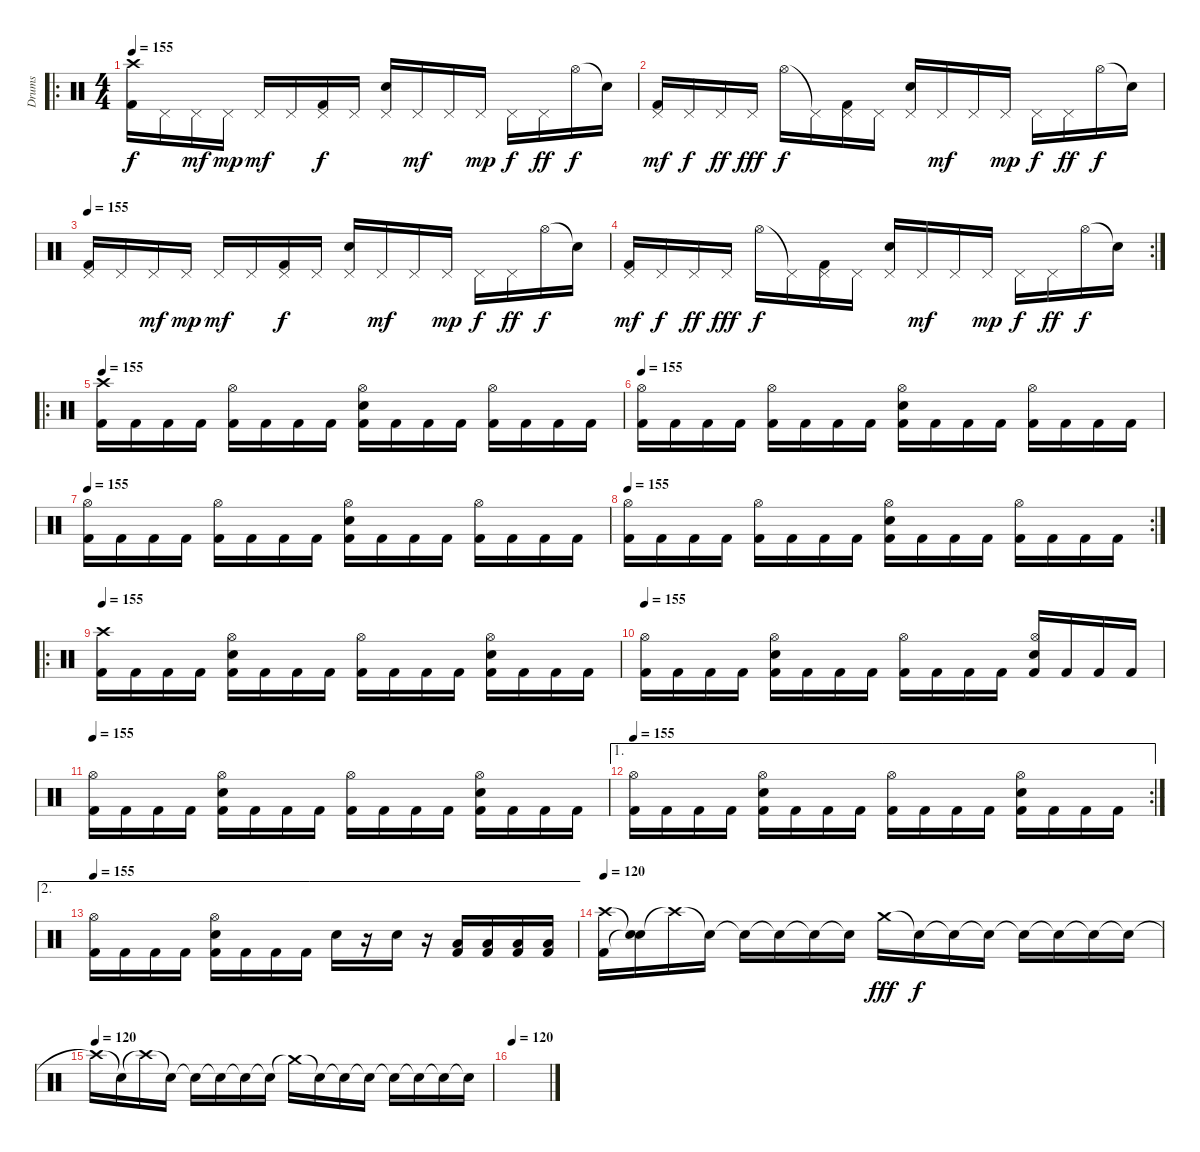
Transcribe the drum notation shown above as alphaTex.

\track ("Drums" "Drums") {instrument percussion}
\staff {score}
\articulation defaults
\ro
\ts (4 4)
\tempo 155
\clef neutral
\ks c
("Crash high (hit)" "Kick (hit) 2").16{dy f} "Pedal Hi-Hat (hit)".16 "Pedal Hi-Hat (hit)".16{dy mf} "Pedal Hi-Hat (hit)".16{dy mp} "Pedal Hi-Hat (hit)".16{dy mf} "Pedal Hi-Hat (hit)".16 ("Pedal Hi-Hat (hit)" "Kick (hit) 2").16{dy f} "Pedal Hi-Hat (hit)".16 ("Pedal Hi-Hat (hit)" "Electric Snare (hit)").16 "Pedal Hi-Hat (hit)".16{dy mf} "Pedal Hi-Hat (hit)".16 "Pedal Hi-Hat (hit)".16{dy mp} "Pedal Hi-Hat (hit)".16{dy f} "Pedal Hi-Hat (hit)".16{dy ff} "Hi-Hat (open)".16{dy f} "Snare (hit)"{t}.16 |
("Pedal Hi-Hat (hit)" "Kick (hit) 2").16{dy mf} "Pedal Hi-Hat (hit)".16{dy f} "Pedal Hi-Hat (hit)".16{dy ff} "Pedal Hi-Hat (hit)".16{dy fff} "Hi-Hat (open)".16{dy f} "Pedal Hi-Hat (hit)"{t}.16 ("Pedal Hi-Hat (hit)" "Kick (hit) 2").16 "Pedal Hi-Hat (hit)".16 ("Pedal Hi-Hat (hit)" "Electric Snare (hit)").16 "Pedal Hi-Hat (hit)".16{dy mf} "Pedal Hi-Hat (hit)".16 "Pedal Hi-Hat (hit)".16{dy mp} "Pedal Hi-Hat (hit)".16{dy f} "Pedal Hi-Hat (hit)".16{dy ff} "Hi-Hat (open)".16{dy f} "Snare (hit)"{t}.16 |
\tempo 155
("Pedal Hi-Hat (hit)" "Kick (hit) 2").16 "Pedal Hi-Hat (hit)".16 "Pedal Hi-Hat (hit)".16{dy mf} "Pedal Hi-Hat (hit)".16{dy mp} "Pedal Hi-Hat (hit)".16{dy mf} "Pedal Hi-Hat (hit)".16 ("Pedal Hi-Hat (hit)" "Kick (hit) 2").16{dy f} "Pedal Hi-Hat (hit)".16 ("Pedal Hi-Hat (hit)" "Electric Snare (hit)").16 "Pedal Hi-Hat (hit)".16{dy mf} "Pedal Hi-Hat (hit)".16 "Pedal Hi-Hat (hit)".16{dy mp} "Pedal Hi-Hat (hit)".16{dy f} "Pedal Hi-Hat (hit)".16{dy ff} "Hi-Hat (open)".16{dy f} "Snare (hit)"{t}.16 |
\rc 2
("Pedal Hi-Hat (hit)" "Kick (hit) 2").16{dy mf} "Pedal Hi-Hat (hit)".16{dy f} "Pedal Hi-Hat (hit)".16{dy ff} "Pedal Hi-Hat (hit)".16{dy fff} "Hi-Hat (open)".16{dy f} "Pedal Hi-Hat (hit)"{t}.16 ("Pedal Hi-Hat (hit)" "Kick (hit) 2").16 "Pedal Hi-Hat (hit)".16 ("Pedal Hi-Hat (hit)" "Electric Snare (hit)").16 "Pedal Hi-Hat (hit)".16{dy mf} "Pedal Hi-Hat (hit)".16 "Pedal Hi-Hat (hit)".16{dy mp} "Pedal Hi-Hat (hit)".16{dy f} "Pedal Hi-Hat (hit)".16{dy ff} "Hi-Hat (open)".16{dy f} "Snare (hit)"{t}.16 |
\ro
\tempo 155
("Crash high (hit)" "Kick (hit) 2").16 "Kick (hit) 2".16 "Kick (hit) 2".16 "Kick (hit) 2".16 ("Hi-Hat (open)" "Kick (hit) 2").16 "Kick (hit) 2".16 "Kick (hit) 2".16 "Kick (hit) 2".16 ("Hi-Hat (open)" "Electric Snare (hit)" "Kick (hit) 2").16 "Kick (hit) 2".16 "Kick (hit) 2".16 "Kick (hit) 2".16 ("Hi-Hat (open)" "Kick (hit) 2").16 "Kick (hit) 2".16 "Kick (hit) 2".16 "Kick (hit) 2".16 |
\tempo 155
("Hi-Hat (open)" "Kick (hit) 2").16 "Kick (hit) 2".16 "Kick (hit) 2".16 "Kick (hit) 2".16 ("Hi-Hat (open)" "Kick (hit) 2").16 "Kick (hit) 2".16 "Kick (hit) 2".16 "Kick (hit) 2".16 ("Hi-Hat (open)" "Electric Snare (hit)" "Kick (hit) 2").16 "Kick (hit) 2".16 "Kick (hit) 2".16 "Kick (hit) 2".16 ("Hi-Hat (open)" "Kick (hit) 2").16 "Kick (hit) 2".16 "Kick (hit) 2".16 "Kick (hit) 2".16 |
\tempo 155
("Hi-Hat (open)" "Kick (hit) 2").16 "Kick (hit) 2".16 "Kick (hit) 2".16 "Kick (hit) 2".16 ("Hi-Hat (open)" "Kick (hit) 2").16 "Kick (hit) 2".16 "Kick (hit) 2".16 "Kick (hit) 2".16 ("Hi-Hat (open)" "Electric Snare (hit)" "Kick (hit) 2").16 "Kick (hit) 2".16 "Kick (hit) 2".16 "Kick (hit) 2".16 ("Hi-Hat (open)" "Kick (hit) 2").16 "Kick (hit) 2".16 "Kick (hit) 2".16 "Kick (hit) 2".16 |
\rc 2
\tempo 155
("Hi-Hat (open)" "Kick (hit) 2").16 "Kick (hit) 2".16 "Kick (hit) 2".16 "Kick (hit) 2".16 ("Hi-Hat (open)" "Kick (hit) 2").16 "Kick (hit) 2".16 "Kick (hit) 2".16 "Kick (hit) 2".16 ("Hi-Hat (open)" "Electric Snare (hit)" "Kick (hit) 2").16 "Kick (hit) 2".16 "Kick (hit) 2".16 "Kick (hit) 2".16 ("Hi-Hat (open)" "Kick (hit) 2").16 "Kick (hit) 2".16 "Kick (hit) 2".16 "Kick (hit) 2".16 |
\ro
\tempo 155
("Crash high (hit)" "Kick (hit) 2").16 "Kick (hit) 2".16 "Kick (hit) 2".16 "Kick (hit) 2".16 ("Hi-Hat (open)" "Electric Snare (hit)" "Kick (hit) 2").16 "Kick (hit) 2".16 "Kick (hit) 2".16 "Kick (hit) 2".16 ("Hi-Hat (open)" "Kick (hit) 2").16 "Kick (hit) 2".16 "Kick (hit) 2".16 "Kick (hit) 2".16 ("Hi-Hat (open)" "Electric Snare (hit)" "Kick (hit) 2").16 "Kick (hit) 2".16 "Kick (hit) 2".16 "Kick (hit) 2".16 |
\tempo 155
("Hi-Hat (open)" "Kick (hit) 2").16 "Kick (hit) 2".16 "Kick (hit) 2".16 "Kick (hit) 2".16 ("Hi-Hat (open)" "Electric Snare (hit)" "Kick (hit) 2").16 "Kick (hit) 2".16 "Kick (hit) 2".16 "Kick (hit) 2".16 ("Hi-Hat (open)" "Kick (hit) 2").16 "Kick (hit) 2".16 "Kick (hit) 2".16 "Kick (hit) 2".16 ("Hi-Hat (open)" "Snare (hit) 2" "Kick (hit) 2").16 "Kick (hit) 2".16 "Kick (hit) 2".16 "Kick (hit) 2".16 |
\tempo 155
("Hi-Hat (open)" "Kick (hit) 2").16 "Kick (hit) 2".16 "Kick (hit) 2".16 "Kick (hit) 2".16 ("Hi-Hat (open)" "Electric Snare (hit)" "Kick (hit) 2").16 "Kick (hit) 2".16 "Kick (hit) 2".16 "Kick (hit) 2".16 ("Hi-Hat (open)" "Kick (hit) 2").16 "Kick (hit) 2".16 "Kick (hit) 2".16 "Kick (hit) 2".16 ("Hi-Hat (open)" "Electric Snare (hit)" "Kick (hit) 2").16 "Kick (hit) 2".16 "Kick (hit) 2".16 "Kick (hit) 2".16 |
\ae 1
\rc 2
\tempo 155
("Hi-Hat (open)" "Kick (hit) 2").16 "Kick (hit) 2".16 "Kick (hit) 2".16 "Kick (hit) 2".16 ("Hi-Hat (open)" "Electric Snare (hit)" "Kick (hit) 2").16 "Kick (hit) 2".16 "Kick (hit) 2".16 "Kick (hit) 2".16 ("Hi-Hat (open)" "Kick (hit) 2").16 "Kick (hit) 2".16 "Kick (hit) 2".16 "Kick (hit) 2".16 ("Hi-Hat (open)" "Electric Snare (hit)" "Kick (hit) 2").16 "Kick (hit) 2".16 "Kick (hit) 2".16 "Kick (hit) 2".16 |
\ae 2
\tempo 155
("Hi-Hat (open)" "Kick (hit) 2").16 "Kick (hit) 2".16 "Kick (hit) 2".16 "Kick (hit) 2".16 ("Hi-Hat (open)" "Electric Snare (hit)" "Kick (hit) 2").16 "Kick (hit) 2".16 "Kick (hit) 2".16 "Kick (hit) 2".16 "Electric Snare (hit)".16 r.16 "Electric Snare (hit)".16 r.16 ("Low Tom (hit)" "Kick (hit) 2").16 ("Low Tom (hit)" "Kick (hit) 2").16 ("Low Tom (hit)" "Kick (hit) 2").16 ("Low Tom (hit)" "Kick (hit) 2").16 |
\tempo 120
("Crash high (hit)" "Kick (hit) 2").16 ("Snare (hit)"{t} "Snare (hit)"{t}).16 "Crash high (hit)"{t}.16 "Snare (hit)"{t}.16 "Snare (hit)"{t}.16 "Snare (hit)"{t}.16 "Snare (hit)"{t}.16 "Snare (hit)"{t}.16{volume 0} "Crash medium (hit)".16{dy fff volume 16} "Snare (hit)"{t}.16{dy f} "Snare (hit)"{t}.16 "Snare (hit)"{t}.16 "Snare (hit)"{t}.16 "Snare (hit)"{t}.16 "Snare (hit)"{t}.16 "Snare (hit)"{t}.16 |
\tempo (120)
"Crash high (hit)"{t}.16 "Snare (hit)"{t}.16 "Crash high (hit)"{t}.16 "Snare (hit)"{t}.16 "Snare (hit)"{t}.16 "Snare (hit)"{t}.16 "Snare (hit)"{t}.16 "Snare (hit)"{t}.16 "Crash medium (hit)"{t}.16 "Snare (hit)"{t}.16 "Snare (hit)"{t}.16 "Snare (hit)"{t}.16 "Snare (hit)"{t}.16 "Snare (hit)"{t}.16 "Snare (hit)"{t}.16 "Snare (hit)"{t}.16 |
\tempo 120
